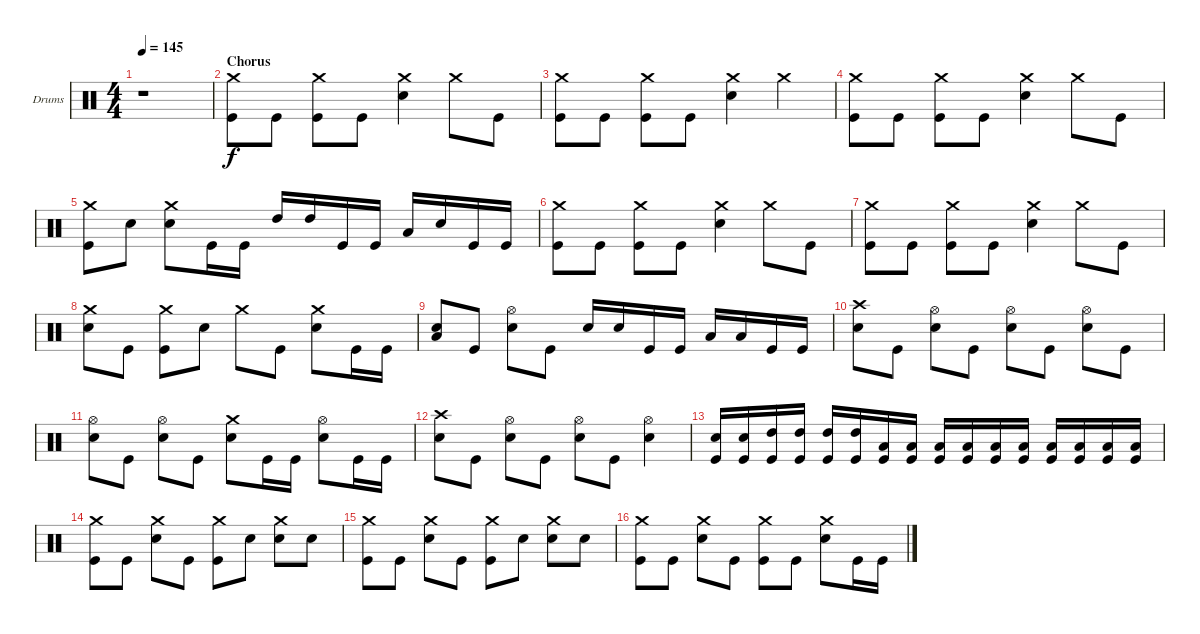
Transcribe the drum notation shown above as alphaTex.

\bracketExtendMode groupsimilarinstruments
\firstSystemTrackNameOrientation horizontal
\otherSystemsTrackNameOrientation horizontal
\track ("Drumkit" "Drums") {instrument percussion}
\staff {score}
\articulation defaults
\ts (4 4)
\tempo 145
\clef neutral
\ks c
r.1{dy f} |
\section ("" "Chorus")
("Crash medium (hit)" "Kick (hit)").8 "Kick (hit)".8 ("Crash medium (hit)" "Kick (hit)").8 "Kick (hit)".8 ("Crash medium (hit)" "Snare (hit) 2").4 "Crash medium (hit)".8 "Kick (hit)".8 |
("Crash medium (hit)" "Kick (hit)").8 "Kick (hit)".8 ("Crash medium (hit)" "Kick (hit)").8 "Kick (hit)".8 ("Crash medium (hit)" "Snare (hit) 2").4 "Crash medium (hit)".4 |
("Crash medium (hit)" "Kick (hit)").8 "Kick (hit)".8 ("Crash medium (hit)" "Kick (hit)").8 "Kick (hit)".8 ("Crash medium (hit)" "Snare (hit) 2").4 "Crash medium (hit)".8 "Kick (hit)".8 |
("Crash medium (hit)" "Kick (hit)").8 "Snare (hit) 2".8 ("Crash medium (hit)" "Snare (hit) 2").8 "Kick (hit)".16 "Kick (hit)".16 "High Tom (hit)".16 "High Tom (hit)".16 "Kick (hit)".16 "Kick (hit)".16 "Low Tom (hit)".16 "Snare (hit) 2".16 "Kick (hit)".16 "Kick (hit)".16 |
("Crash medium (hit)" "Kick (hit)").8 "Kick (hit)".8 ("Crash medium (hit)" "Kick (hit)").8 "Kick (hit)".8 ("Crash medium (hit)" "Snare (hit) 2").4 "Crash medium (hit)".8 "Kick (hit)".8 |
("Crash medium (hit)" "Kick (hit)").8 "Kick (hit)".8 ("Crash medium (hit)" "Kick (hit)").8 "Kick (hit)".8 ("Crash medium (hit)" "Snare (hit) 2").4 "Crash medium (hit)".8 "Kick (hit)".8 |
("Crash medium (hit)" "Snare (hit) 2").8 "Kick (hit)".8 ("Crash medium (hit)" "Kick (hit)").8 "Snare (hit) 2".8 "Crash medium (hit)".8 "Kick (hit)".8 ("Crash medium (hit)" "Snare (hit) 2").8 "Kick (hit)".16 "Kick (hit)".16 |
("Snare (hit) 2" "Low Tom (hit)").8 "Kick (hit)".8 ("Hi-Hat (open)" "Snare (hit) 2").8 "Kick (hit)".8 "Snare (hit) 2".16 "Snare (hit) 2".16 "Kick (hit)".16 "Kick (hit)".16 "Low Tom (hit)".16 "Low Tom (hit)".16 "Kick (hit)".16 "Kick (hit)".16 |
("Crash high (hit)" "Snare (hit) 2").8 "Kick (hit)".8 ("Hi-Hat (open)" "Snare (hit) 2").8 "Kick (hit)".8 ("Hi-Hat (open)" "Snare (hit) 2").8 "Kick (hit)".8 ("Hi-Hat (open)" "Snare (hit) 2").8 "Kick (hit)".8 |
("Hi-Hat (open)" "Snare (hit) 2").8 "Kick (hit)".8 ("Hi-Hat (open)" "Snare (hit) 2").8 "Kick (hit)".8 ("Crash medium (hit)" "Snare (hit) 2").8 "Kick (hit)".16 "Kick (hit)".16 ("Hi-Hat (open)" "Snare (hit) 2").8 "Kick (hit)".16 "Kick (hit)".16 |
("Crash high (hit)" "Snare (hit) 2").8 "Kick (hit)".8 ("Hi-Hat (open)" "Snare (hit) 2").8 "Kick (hit)".8 ("Hi-Hat (open)" "Snare (hit) 2").8 "Kick (hit)".8 ("Hi-Hat (open)" "Snare (hit) 2").4 |
("Snare (hit) 2" "Kick (hit)").16 ("Snare (hit) 2" "Kick (hit)").16 ("High Tom (hit)" "Kick (hit)").16 ("High Tom (hit)" "Kick (hit)").16 ("High Tom (hit)" "Kick (hit)").16 ("High Tom (hit)" "Kick (hit)").16 ("Low Tom (hit)" "Kick (hit)").16 ("Low Tom (hit)" "Kick (hit)").16 ("Low Tom (hit)" "Kick (hit)").16 ("Low Tom (hit)" "Kick (hit)").16 ("Low Tom (hit)" "Kick (hit)").16 ("Low Tom (hit)" "Kick (hit)").16 ("Low Tom (hit)" "Kick (hit)").16 ("Low Tom (hit)" "Kick (hit)").16 ("Low Tom (hit)" "Kick (hit)").16 ("Low Tom (hit)" "Kick (hit)").16 |
("Crash medium (hit)" "Kick (hit)").8 "Kick (hit)".8 ("Crash medium (hit)" "Snare (hit) 2").8 "Kick (hit)".8 ("Crash medium (hit)" "Kick (hit)").8 "Snare (hit) 2".8 ("Crash medium (hit)" "Snare (hit) 2").8 "Snare (hit) 2".8 |
("Crash medium (hit)" "Kick (hit)").8 "Kick (hit)".8 ("Crash medium (hit)" "Snare (hit) 2").8 "Kick (hit)".8 ("Crash medium (hit)" "Kick (hit)").8 "Snare (hit) 2".8 ("Crash medium (hit)" "Snare (hit) 2").8 "Snare (hit) 2".8 |
("Crash medium (hit)" "Kick (hit)").8 "Kick (hit)".8 ("Crash medium (hit)" "Snare (hit) 2").8 "Kick (hit)".8 ("Crash medium (hit)" "Kick (hit)").8 "Kick (hit)".8 ("Crash medium (hit)" "Snare (hit) 2").8 "Kick (hit)".16 "Kick (hit)".16
